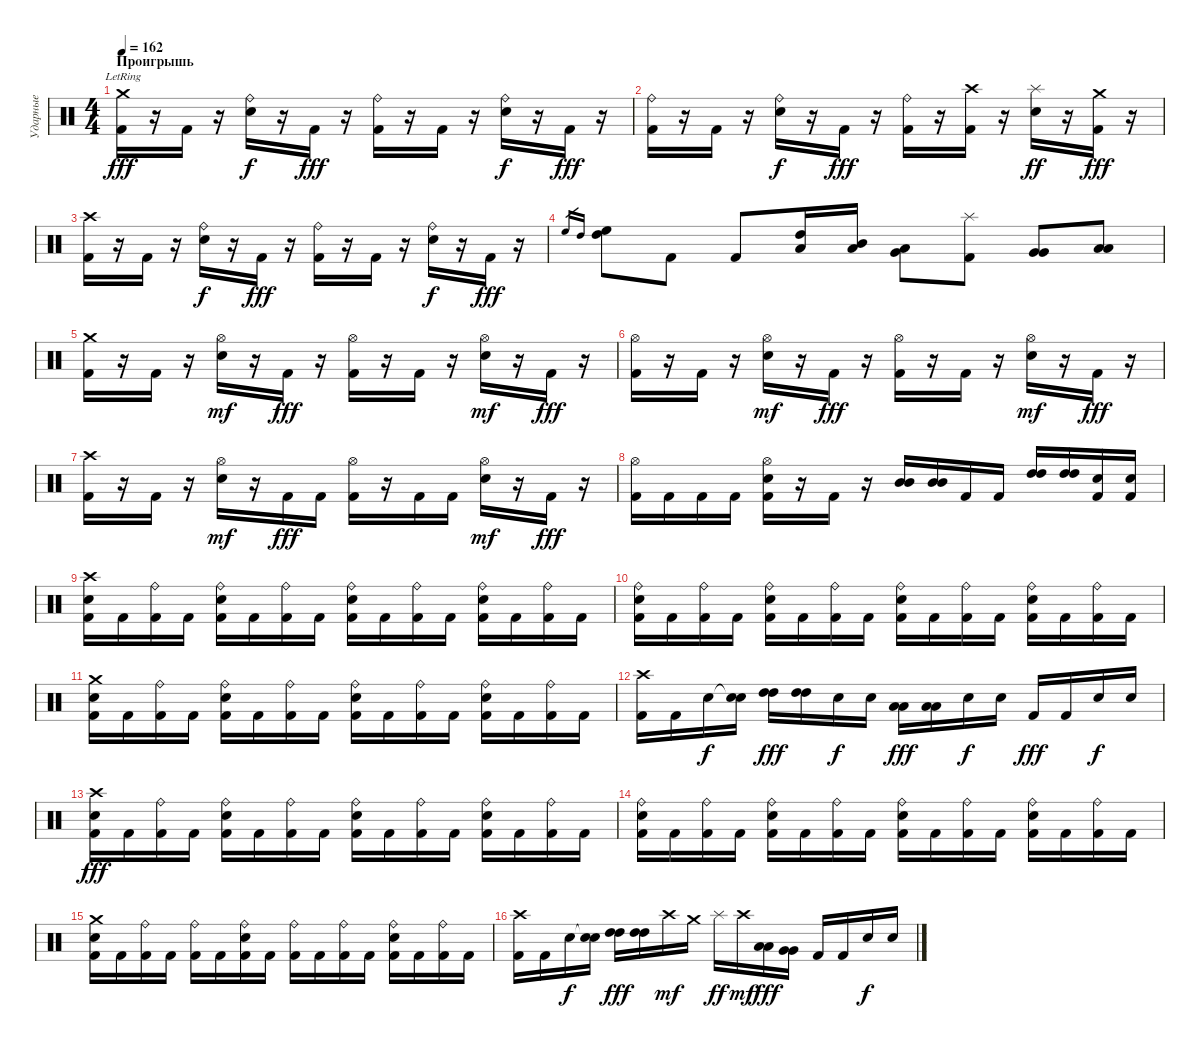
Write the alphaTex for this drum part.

\track ("Ударные" "Ударные") {instrument percussion}
\staff {score}
\articulation defaults
\ts (4 4)
\section ("" "Проигрышь")
\tempo 162
\clef neutral
\ks c
("Crash medium (hit)"{lr} "Kick (hit) 2").16{dy fff} r.16 "Kick (hit) 2".16 r.16 ("Ride (bell)" "Electric Snare (hit)").16{dy f} r.16 "Kick (hit) 2".16{dy fff} r.16 ("Ride (bell)" "Kick (hit) 2").16 r.16 "Kick (hit) 2".16 r.16 ("Ride (bell)" "Electric Snare (hit)").16{dy f} r.16 "Kick (hit) 2".16{dy fff} r.16 |
("Ride (bell)" "Kick (hit) 2").16 r.16 "Kick (hit) 2".16 r.16 ("Ride (bell)" "Electric Snare (hit)").16{dy f} r.16 "Kick (hit) 2".16{dy fff} r.16 ("Ride (bell)" "Kick (hit) 2").16 r.16 ("Crash high (hit)" "Kick (hit) 2").16 r.16 ("Splash (hit)" "Electric Snare (hit)").16{dy ff} r.16 ("Crash medium (hit)" "Kick (hit) 2").16{dy fff} r.16 |
("Crash high (hit)" "Kick (hit) 2").16 r.16 "Kick (hit) 2".16 r.16 ("Ride (bell)" "Electric Snare (hit)").16{dy f} r.16 "Kick (hit) 2".16{dy fff} r.16 ("Ride (bell)" "Kick (hit) 2").16 r.16 "Kick (hit) 2".16 r.16 ("Ride (bell)" "Electric Snare (hit)").16{dy f} r.16 "Kick (hit) 2".16{dy fff} r.16 |
"High Floor Tom (hit)".16{gr} "High Tom (hit)".16{gr} ("High Floor Tom (hit)" "High Tom (hit)").8 "Kick (hit) 2".8 "Kick (hit) 2".8 ("High Tom (hit)" "Low Tom (hit)").16 ("Mid Tom (hit)" "Low Tom (hit)").16 ("Low Tom (hit)" "Very Low Tom (hit)").8 ("Splash (hit)" "Kick (hit) 2").8 ("Very Low Tom (hit)" "Very Low Tom (hit)").8 ("Low Floor Tom (hit)" "Low Floor Tom (hit)").8 |
("Crash medium (hit)" "Kick (hit) 2").16 r.16 "Kick (hit) 2".16 r.16 ("Hi-Hat (open)" "Electric Snare (hit)").16{dy mf} r.16 "Kick (hit) 2".16{dy fff} r.16 ("Hi-Hat (open)" "Kick (hit) 2").16 r.16 "Kick (hit) 2".16 r.16 ("Hi-Hat (open)" "Electric Snare (hit)").16{dy mf} r.16 "Kick (hit) 2".16{dy fff} r.16 |
("Hi-Hat (open)" "Kick (hit) 2").16 r.16 "Kick (hit) 2".16 r.16 ("Hi-Hat (open)" "Electric Snare (hit)").16{dy mf} r.16 "Kick (hit) 2".16{dy fff} r.16 ("Hi-Hat (open)" "Kick (hit) 2").16 r.16 "Kick (hit) 2".16 r.16 ("Hi-Hat (open)" "Electric Snare (hit)").16{dy mf} r.16 "Kick (hit) 2".16{dy fff} r.16 |
("Crash high (hit)" "Kick (hit) 2").16 r.16 "Kick (hit) 2".16 r.16 ("Hi-Hat (open)" "Electric Snare (hit)").16{dy mf} r.16 "Kick (hit) 2".16{dy fff} "Kick (hit) 2".16 ("Hi-Hat (open)" "Kick (hit) 2").16 r.16 "Kick (hit) 2".16 "Kick (hit) 2".16 ("Hi-Hat (open)" "Electric Snare (hit)").16{dy mf} r.16 "Kick (hit) 2".16{dy fff} r.16 |
("Hi-Hat (open)" "Kick (hit) 2").16 "Kick (hit) 2".16 "Kick (hit) 2".16 "Kick (hit) 2".16 ("Hi-Hat (open)" "Electric Snare (hit)" "Kick (hit) 2").16 r.16 "Kick (hit) 2".16 r.16 ("Mid Tom (hit)" "Mid Tom (hit)").16 ("Mid Tom (hit)" "Mid Tom (hit)").16 "Kick (hit) 2".16 "Kick (hit) 2".16 ("High Tom (hit)" "High Tom (hit)").16 ("High Tom (hit)" "High Tom (hit)").16 ("Electric Snare (hit)" "Kick (hit) 2").16 ("Electric Snare (hit)" "Kick (hit) 2").16 |
("Crash high (hit)" "Electric Snare (hit)" "Kick (hit) 2").16 "Kick (hit) 2".16 ("Ride (bell)" "Kick (hit) 2").16 "Kick (hit) 2".16 ("Ride (bell)" "Electric Snare (hit)" "Kick (hit) 2").16 "Kick (hit) 2".16 ("Ride (bell)" "Kick (hit) 2").16 "Kick (hit) 2".16 ("Ride (bell)" "Electric Snare (hit)" "Kick (hit) 2").16 "Kick (hit) 2".16 ("Ride (bell)" "Kick (hit) 2").16 "Kick (hit) 2".16 ("Ride (bell)" "Electric Snare (hit)" "Kick (hit) 2").16 "Kick (hit) 2".16 ("Ride (bell)" "Kick (hit) 2").16 "Kick (hit) 2".16 |
("Ride (bell)" "Electric Snare (hit)" "Kick (hit) 2").16 "Kick (hit) 2".16 ("Ride (bell)" "Kick (hit) 2").16 "Kick (hit) 2".16 ("Ride (bell)" "Electric Snare (hit)" "Kick (hit) 2").16 "Kick (hit) 2".16 ("Ride (bell)" "Kick (hit) 2").16 "Kick (hit) 2".16 ("Ride (bell)" "Electric Snare (hit)" "Kick (hit) 2").16 "Kick (hit) 2".16 ("Ride (bell)" "Kick (hit) 2").16 "Kick (hit) 2".16 ("Ride (bell)" "Electric Snare (hit)" "Kick (hit) 2").16 "Kick (hit) 2".16 ("Ride (bell)" "Kick (hit) 2").16 "Kick (hit) 2".16 |
("Crash medium (hit)" "Electric Snare (hit)" "Kick (hit) 2").16 "Kick (hit) 2".16 ("Ride (bell)" "Kick (hit) 2").16 "Kick (hit) 2".16 ("Ride (bell)" "Electric Snare (hit)" "Kick (hit) 2").16 "Kick (hit) 2".16 ("Ride (bell)" "Kick (hit) 2").16 "Kick (hit) 2".16 ("Ride (bell)" "Electric Snare (hit)" "Kick (hit) 2").16 "Kick (hit) 2".16 ("Ride (bell)" "Kick (hit) 2").16 "Kick (hit) 2".16 ("Ride (bell)" "Electric Snare (hit)" "Kick (hit) 2").16 "Kick (hit) 2".16 ("Ride (bell)" "Kick (hit) 2").16 "Kick (hit) 2".16 |
("Crash high (hit)" "Kick (hit) 2").16 "Kick (hit) 2".16 "Electric Snare (hit)".16{dy f} ("Snare (hit)"{t} "Electric Snare (hit)").16 ("High Tom (hit)" "High Tom (hit)").16{dy fff} ("High Tom (hit)" "High Tom (hit)").16 "Electric Snare (hit)".16{dy f} "Electric Snare (hit)".16 ("Low Tom (hit)" "Low Tom (hit)").16{dy fff} ("Low Tom (hit)" "Low Tom (hit)").16 "Electric Snare (hit)".16{dy f} "Electric Snare (hit)".16 "Kick (hit) 2".16{dy fff} "Kick (hit) 2".16 "Electric Snare (hit)".16{dy f} "Electric Snare (hit)".16 |
("Crash high (hit)" "Electric Snare (hit)" "Kick (hit) 2").16{dy fff} "Kick (hit) 2".16 ("Ride (bell)" "Kick (hit) 2").16 "Kick (hit) 2".16 ("Ride (bell)" "Electric Snare (hit)" "Kick (hit) 2").16 "Kick (hit) 2".16 ("Ride (bell)" "Kick (hit) 2").16 "Kick (hit) 2".16 ("Ride (bell)" "Electric Snare (hit)" "Kick (hit) 2").16 "Kick (hit) 2".16 ("Ride (bell)" "Kick (hit) 2").16 "Kick (hit) 2".16 ("Ride (bell)" "Electric Snare (hit)" "Kick (hit) 2").16 "Kick (hit) 2".16 ("Ride (bell)" "Kick (hit) 2").16 "Kick (hit) 2".16 |
("Ride (bell)" "Electric Snare (hit)" "Kick (hit) 2").16 "Kick (hit) 2".16 ("Ride (bell)" "Kick (hit) 2").16 "Kick (hit) 2".16 ("Ride (bell)" "Electric Snare (hit)" "Kick (hit) 2").16 "Kick (hit) 2".16 ("Ride (bell)" "Kick (hit) 2").16 "Kick (hit) 2".16 ("Ride (bell)" "Electric Snare (hit)" "Kick (hit) 2").16 "Kick (hit) 2".16 ("Ride (bell)" "Kick (hit) 2").16 "Kick (hit) 2".16 ("Ride (bell)" "Electric Snare (hit)" "Kick (hit) 2").16 "Kick (hit) 2".16 ("Ride (bell)" "Kick (hit) 2").16 "Kick (hit) 2".16 |
("Crash medium (hit)" "Electric Snare (hit)" "Kick (hit) 2").16 "Kick (hit) 2".16 ("Ride (bell)" "Kick (hit) 2").16 "Kick (hit) 2".16 ("Ride (bell)" "Kick (hit) 2").16 "Kick (hit) 2".16 ("Ride (bell)" "Electric Snare (hit)" "Kick (hit) 2").16 "Kick (hit) 2".16 ("Ride (bell)" "Kick (hit) 2").16 "Kick (hit) 2".16 ("Ride (bell)" "Kick (hit) 2").16 "Kick (hit) 2".16 ("Ride (bell)" "Electric Snare (hit)" "Kick (hit) 2").16 "Kick (hit) 2".16 ("Ride (bell)" "Kick (hit) 2").16 "Kick (hit) 2".16 |
("Crash high (hit)" "Kick (hit) 2").16 "Kick (hit) 2".16 "Electric Snare (hit)".16{dy f} ("Snare (hit)"{t} "Electric Snare (hit)").16 ("High Tom (hit)" "High Tom (hit)").16{dy fff} ("High Tom (hit)" "High Tom (hit)").16 "Crash high (hit)".16{dy mf} "Crash medium (hit)".16 "Splash (hit)".16{dy ff} "Crash high (hit)".16{dy mf} ("Low Tom (hit)" "Low Tom (hit)").16{dy fff} ("Very Low Tom (hit)" "Very Low Tom (hit)").16 "Kick (hit) 2".16 "Kick (hit) 2".16 "Electric Snare (hit)".16{dy f} "Electric Snare (hit)".16
